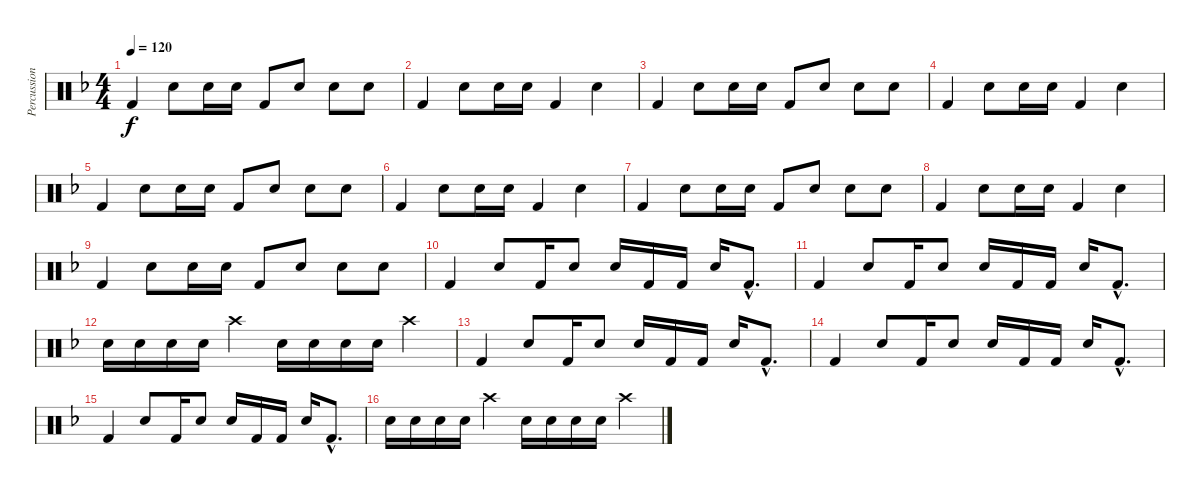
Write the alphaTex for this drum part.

\track ("Percussion" "Percussion") {instrument percussion}
\staff {score}
\articulation defaults
\ts (4 4)
\tempo 120
\clef neutral
\ks dminor "Kick (hit) 2".4{dy f} "Snare (hit) 2".8 "Snare (hit) 2".16 "Snare (hit) 2".16 "Kick (hit) 2".8 "Snare (hit) 2".8 "Snare (hit) 2".8 "Snare (hit) 2".8
|
"Kick (hit) 2".4 "Snare (hit) 2".8 "Snare (hit) 2".16 "Snare (hit) 2".16 "Kick (hit) 2".4 "Snare (hit) 2".4 |
"Kick (hit) 2".4 "Snare (hit) 2".8 "Snare (hit) 2".16 "Snare (hit) 2".16 "Kick (hit) 2".8 "Snare (hit) 2".8 "Snare (hit) 2".8 "Snare (hit) 2".8 |
"Kick (hit) 2".4 "Snare (hit) 2".8 "Snare (hit) 2".16 "Snare (hit) 2".16 "Kick (hit) 2".4 "Snare (hit) 2".4 |
"Kick (hit) 2".4 "Snare (hit) 2".8 "Snare (hit) 2".16 "Snare (hit) 2".16 "Kick (hit) 2".8 "Snare (hit) 2".8 "Snare (hit) 2".8 "Snare (hit) 2".8 |
"Kick (hit) 2".4 "Snare (hit) 2".8 "Snare (hit) 2".16 "Snare (hit) 2".16 "Kick (hit) 2".4 "Snare (hit) 2".4 |
"Kick (hit) 2".4 "Snare (hit) 2".8 "Snare (hit) 2".16 "Snare (hit) 2".16 "Kick (hit) 2".8 "Snare (hit) 2".8 "Snare (hit) 2".8 "Snare (hit) 2".8 |
"Kick (hit) 2".4 "Snare (hit) 2".8 "Snare (hit) 2".16 "Snare (hit) 2".16 "Kick (hit) 2".4 "Snare (hit) 2".4 |
"Kick (hit) 2".4 "Snare (hit) 2".8 "Snare (hit) 2".16 "Snare (hit) 2".16 "Kick (hit) 2".8 "Snare (hit) 2".8 "Snare (hit) 2".8 "Snare (hit) 2".8 |
"Kick (hit) 2".4 "Snare (hit) 2".8 "Kick (hit) 2".16 "Snare (hit) 2".8 "Snare (hit) 2".16 "Kick (hit) 2".16 "Kick (hit) 2".16 "Snare (hit) 2".16 "Kick (hit) 2"{hac}.8{d} |
"Kick (hit) 2".4 "Snare (hit) 2".8 "Kick (hit) 2".16 "Snare (hit) 2".8 "Snare (hit) 2".16 "Kick (hit) 2".16 "Kick (hit) 2".16 "Snare (hit) 2".16 "Kick (hit) 2"{hac}.8{d} |
"Snare (hit) 2".16 "Snare (hit) 2".16 "Snare (hit) 2".16 "Snare (hit) 2".16 "Crash high (hit)".4 "Snare (hit) 2".16 "Snare (hit) 2".16 "Snare (hit) 2".16 "Snare (hit) 2".16 "Crash high (hit)".4 |
"Kick (hit) 2".4 "Snare (hit) 2".8 "Kick (hit) 2".16 "Snare (hit) 2".8 "Snare (hit) 2".16 "Kick (hit) 2".16 "Kick (hit) 2".16 "Snare (hit) 2".16 "Kick (hit) 2"{hac}.8{d} |
"Kick (hit) 2".4 "Snare (hit) 2".8 "Kick (hit) 2".16 "Snare (hit) 2".8 "Snare (hit) 2".16 "Kick (hit) 2".16 "Kick (hit) 2".16 "Snare (hit) 2".16 "Kick (hit) 2"{hac}.8{d} |
"Kick (hit) 2".4 "Snare (hit) 2".8 "Kick (hit) 2".16 "Snare (hit) 2".8 "Snare (hit) 2".16 "Kick (hit) 2".16 "Kick (hit) 2".16 "Snare (hit) 2".16 "Kick (hit) 2"{hac}.8{d} |
"Snare (hit) 2".16 "Snare (hit) 2".16 "Snare (hit) 2".16 "Snare (hit) 2".16 "Crash high (hit)".4 "Snare (hit) 2".16 "Snare (hit) 2".16 "Snare (hit) 2".16 "Snare (hit) 2".16 "Crash high (hit)".4
